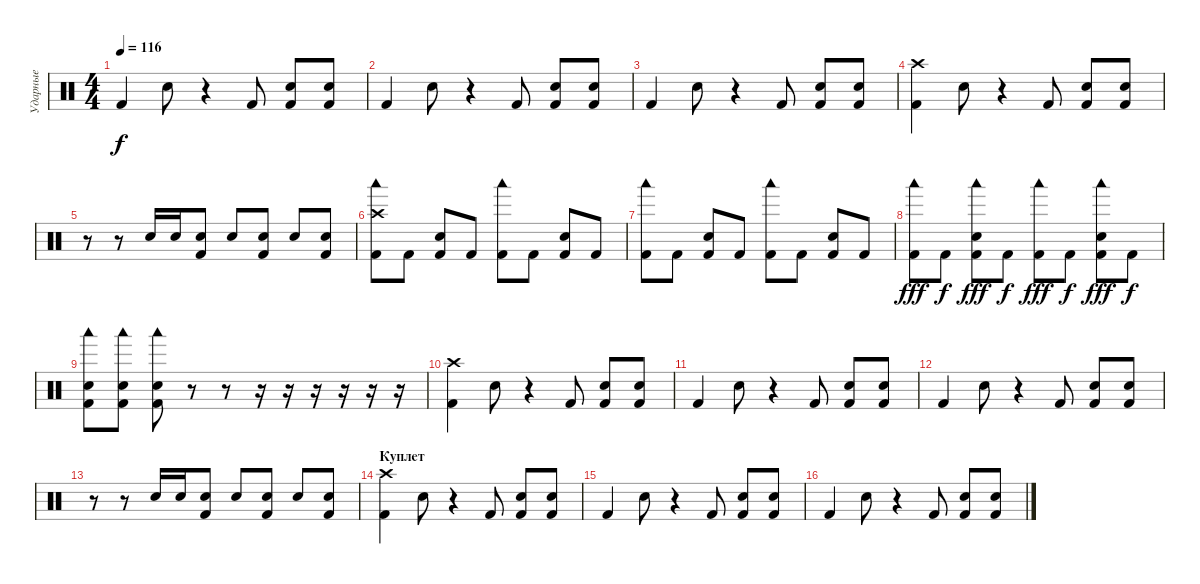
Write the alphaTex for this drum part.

\track ("Ударные" "Ударные") {instrument percussion}
\staff {score}
\articulation defaults
\ts (4 4)
\tempo 116
\clef neutral
\ks c "Kick (hit) 2".4{dy f} "Electric Snare (hit)".8
r.4 "Kick (hit) 2".8 ("Electric Snare (hit)" "Kick (hit) 2").8 ("Electric Snare (hit)" "Kick (hit) 2").8 |
"Kick (hit) 2".4 "Electric Snare (hit)".8 r.4 "Kick (hit) 2".8 ("Electric Snare (hit)" "Kick (hit) 2").8 ("Electric Snare (hit)" "Kick (hit) 2").8 |
"Kick (hit) 2".4 "Electric Snare (hit)".8 r.4 "Kick (hit) 2".8 ("Electric Snare (hit)" "Kick (hit) 2").8 ("Electric Snare (hit)" "Kick (hit) 2").8 |
("Crash high (hit)" "Kick (hit) 2").4 "Electric Snare (hit)".8 r.4 "Kick (hit) 2".8 ("Electric Snare (hit)" "Kick (hit) 2").8 ("Electric Snare (hit)" "Kick (hit) 2").8 |
r.8 r.8 "Electric Snare (hit)".16 "Electric Snare (hit)".16 ("Electric Snare (hit)" "Kick (hit) 2").8 "Electric Snare (hit)".8 ("Electric Snare (hit)" "Kick (hit) 2").8 "Electric Snare (hit)".8 ("Electric Snare (hit)" "Kick (hit) 2").8 |
("Kick (hit) 2" "Crash high (hit)" "Woodblock low (hit)").8{volume 16} "Kick (hit) 2".8 ("Kick (hit) 2" "Electric Snare (hit)").8 "Kick (hit) 2".8 ("Kick (hit) 2" "Woodblock low (hit)").8 "Kick (hit) 2".8 ("Kick (hit) 2" "Electric Snare (hit)").8 "Kick (hit) 2".8 |
("Kick (hit) 2" "Woodblock low (hit)").8 "Kick (hit) 2".8 ("Kick (hit) 2" "Electric Snare (hit)").8 "Kick (hit) 2".8 ("Kick (hit) 2" "Woodblock low (hit)").8 "Kick (hit) 2".8 ("Kick (hit) 2" "Electric Snare (hit)").8 "Kick (hit) 2".8 |
("Kick (hit) 2" "Woodblock low (hit)").8{dy fff} "Kick (hit) 2".8{dy f} ("Kick (hit) 2" "Electric Snare (hit)" "Woodblock low (hit)").8{dy fff} "Kick (hit) 2".8{dy f} ("Kick (hit) 2" "Woodblock low (hit)").8{dy fff} "Kick (hit) 2".8{dy f} ("Kick (hit) 2" "Electric Snare (hit)" "Woodblock low (hit)").8{dy fff} "Kick (hit) 2".8{dy f} |
("Electric Snare (hit)" "Kick (hit) 2" "Woodblock low (hit)").8 ("Electric Snare (hit)" "Kick (hit) 2" "Woodblock low (hit)").8 ("Electric Snare (hit)" "Kick (hit) 2" "Woodblock low (hit)").8 r.8 r.8 r.16 r.16 r.16 r.16 r.16 r.16 |
("Crash high (hit)" "Kick (hit) 2").4 "Electric Snare (hit)".8 r.4 "Kick (hit) 2".8 ("Electric Snare (hit)" "Kick (hit) 2").8 ("Electric Snare (hit)" "Kick (hit) 2").8 |
"Kick (hit) 2".4 "Electric Snare (hit)".8 r.4 "Kick (hit) 2".8 ("Electric Snare (hit)" "Kick (hit) 2").8 ("Electric Snare (hit)" "Kick (hit) 2").8 |
"Kick (hit) 2".4 "Electric Snare (hit)".8 r.4 "Kick (hit) 2".8 ("Electric Snare (hit)" "Kick (hit) 2").8 ("Electric Snare (hit)" "Kick (hit) 2").8 |
r.8 r.8 "Electric Snare (hit)".16 "Electric Snare (hit)".16 ("Electric Snare (hit)" "Kick (hit) 2").8 "Electric Snare (hit)".8 ("Electric Snare (hit)" "Kick (hit) 2").8 "Electric Snare (hit)".8 ("Electric Snare (hit)" "Kick (hit) 2").8 |
\section ("" "Куплет")
("Crash high (hit)" "Kick (hit) 2").4 "Electric Snare (hit)".8 r.4 "Kick (hit) 2".8 ("Electric Snare (hit)" "Kick (hit) 2").8 ("Electric Snare (hit)" "Kick (hit) 2").8 |
"Kick (hit) 2".4 "Electric Snare (hit)".8 r.4 "Kick (hit) 2".8 ("Electric Snare (hit)" "Kick (hit) 2").8 ("Electric Snare (hit)" "Kick (hit) 2").8 |
"Kick (hit) 2".4 "Electric Snare (hit)".8 r.4 "Kick (hit) 2".8 ("Electric Snare (hit)" "Kick (hit) 2").8 ("Electric Snare (hit)" "Kick (hit) 2").8
